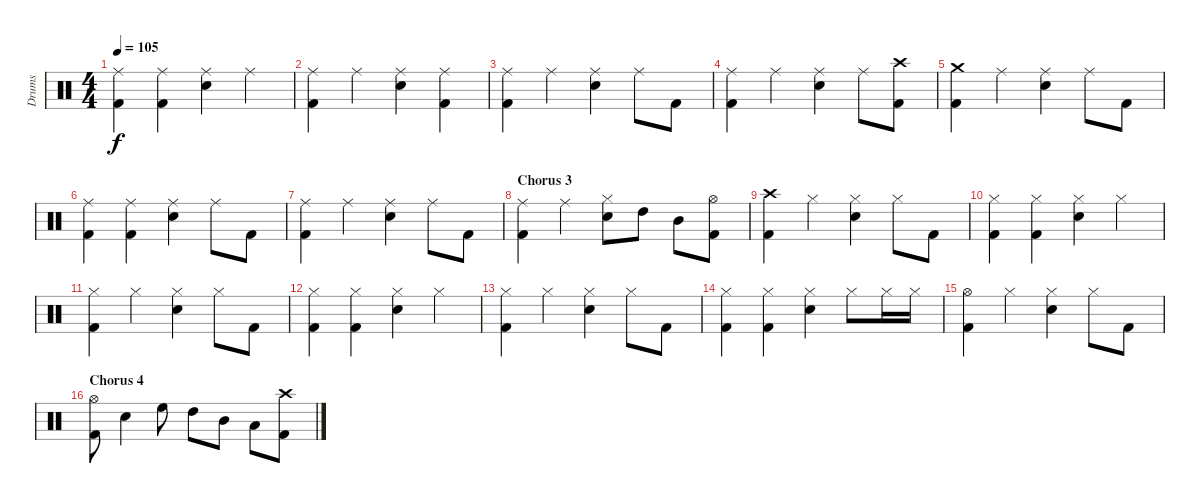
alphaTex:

\track ("Drums" "Drums") {instrument percussion}
\staff {score}
\articulation defaults
\ts (4 4)
\tempo 105
\clef neutral
\ks c
("Ride (middle)" "Kick (hit) 2").4{dy f} ("Ride (middle)" "Kick (hit) 2").4 ("Ride (middle)" "Snare (hit) 2").4 "Ride (middle)".4 |
("Ride (middle)" "Kick (hit) 2").4 "Ride (middle)".4 ("Ride (middle)" "Snare (hit) 2").4 ("Ride (middle)" "Kick (hit) 2").4 |
("Ride (middle)" "Kick (hit) 2").4 "Ride (middle)".4 ("Ride (middle)" "Snare (hit) 2").4 "Ride (middle)".8 "Kick (hit) 2".8 |
("Ride (middle)" "Kick (hit) 2").4 "Ride (middle)".4 ("Ride (middle)" "Snare (hit) 2").4 "Ride (middle)".8 ("Crash high (hit)" "Kick (hit) 2").8 |
("Crash medium (hit)" "Kick (hit) 2").4 "Ride (middle)".4 ("Ride (middle)" "Snare (hit) 2").4 "Ride (middle)".8 "Kick (hit) 2".8 |
("Ride (middle)" "Kick (hit) 2").4 ("Ride (middle)" "Kick (hit) 2").4 ("Ride (middle)" "Snare (hit) 2").4 "Ride (middle)".8 "Kick (hit) 2".8 |
("Ride (middle)" "Kick (hit) 2").4 "Ride (middle)".4 ("Ride (middle)" "Snare (hit) 2").4 "Ride (middle)".8 "Kick (hit) 2".8 |
\section ("" "Chorus 3")
("Ride (middle)" "Kick (hit) 2").4 "Ride (middle)".4 ("Hi-Hat (closed)" "Snare (hit) 2").8 "High Tom (hit)".8 "Mid Tom (hit)".8 ("Hi-Hat (open)" "Kick (hit) 2").8 |
("Crash high (hit)" "Kick (hit) 2").4 "Hi-Hat (closed)".4 ("Hi-Hat (closed)" "Snare (hit) 2").4 "Hi-Hat (closed)".8 "Kick (hit) 2".8 |
("Hi-Hat (closed)" "Kick (hit) 2").4 ("Hi-Hat (closed)" "Kick (hit) 2").4 ("Hi-Hat (closed)" "Snare (hit) 2").4 "Hi-Hat (closed)".4 |
("Hi-Hat (closed)" "Kick (hit) 2").4 "Hi-Hat (closed)".4 ("Hi-Hat (closed)" "Snare (hit) 2").4 "Hi-Hat (closed)".8 "Kick (hit) 2".8 |
("Hi-Hat (closed)" "Kick (hit) 2").4 ("Hi-Hat (closed)" "Kick (hit) 2").4 ("Hi-Hat (closed)" "Snare (hit) 2").4 "Hi-Hat (closed)".4 |
("Hi-Hat (closed)" "Kick (hit) 2").4 "Hi-Hat (closed)".4 ("Hi-Hat (closed)" "Snare (hit) 2").4 "Hi-Hat (closed)".8 "Kick (hit) 2".8 |
("Hi-Hat (closed)" "Kick (hit) 2").4 ("Hi-Hat (closed)" "Kick (hit) 2").4 ("Hi-Hat (closed)" "Snare (hit) 2").4 "Hi-Hat (closed)".8 "Hi-Hat (closed)".16 "Hi-Hat (closed)".16 |
("Hi-Hat (open)" "Kick (hit) 2").4 "Hi-Hat (closed)".4 ("Hi-Hat (closed)" "Snare (hit) 2").4 "Hi-Hat (closed)".8 "Kick (hit) 2".8 |
\section ("" "Chorus 4")
("Hi-Hat (open)" "Kick (hit) 2").8 "Snare (hit) 2".4 "High Floor Tom (hit)".8 "High Tom (hit)".8 "Mid Tom (hit)".8 "Low Tom (hit)".8 ("Crash high (hit)" "Kick (hit) 2").8
